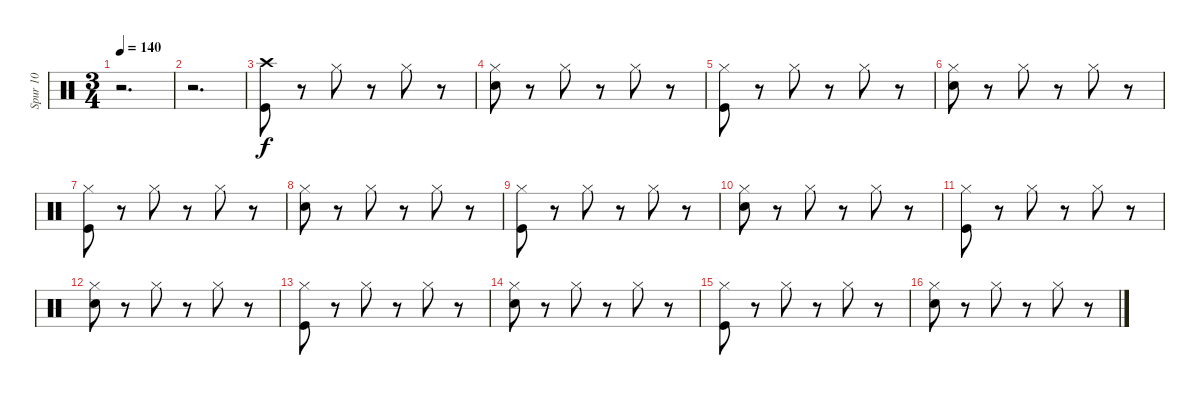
\track ("Spur 10" "Spur 10") {instrument percussion}
\staff {score}
\articulation defaults
\ts (3 4)
\tempo 140
\clef neutral
\ks c
r.2{d dy f} |
r.2{d} |
("Crash high (hit)" "Kick (hit)").8 r.8 "Hi-Hat (closed)".8 r.8 "Hi-Hat (closed)".8 r.8 |
("Snare (hit) 2" "Hi-Hat (closed)").8 r.8 "Hi-Hat (closed)".8 r.8 "Hi-Hat (closed)".8 r.8 |
("Kick (hit)" "Hi-Hat (closed)").8 r.8 "Hi-Hat (closed)".8 r.8 "Hi-Hat (closed)".8 r.8 |
("Hi-Hat (closed)" "Snare (hit) 2").8 r.8 "Hi-Hat (closed)".8 r.8 "Hi-Hat (closed)".8 r.8 |
("Hi-Hat (closed)" "Kick (hit)").8 r.8 "Hi-Hat (closed)".8 r.8 "Hi-Hat (closed)".8 r.8 |
("Snare (hit) 2" "Hi-Hat (closed)").8 r.8 "Hi-Hat (closed)".8 r.8 "Hi-Hat (closed)".8 r.8 |
("Kick (hit)" "Hi-Hat (closed)").8 r.8 "Hi-Hat (closed)".8 r.8 "Hi-Hat (closed)".8 r.8 |
("Snare (hit) 2" "Hi-Hat (closed)").8 r.8 "Hi-Hat (closed)".8 r.8 "Hi-Hat (closed)".8 r.8 |
("Kick (hit)" "Hi-Hat (closed)").8 r.8 "Hi-Hat (closed)".8 r.8 "Hi-Hat (closed)".8 r.8 |
("Snare (hit) 2" "Hi-Hat (closed)").8 r.8 "Hi-Hat (closed)".8 r.8 "Hi-Hat (closed)".8 r.8 |
("Kick (hit)" "Hi-Hat (closed)").8 r.8 "Hi-Hat (closed)".8 r.8 "Hi-Hat (closed)".8 r.8 |
("Snare (hit) 2" "Hi-Hat (closed)").8 r.8 "Hi-Hat (closed)".8 r.8 "Hi-Hat (closed)".8 r.8 |
("Kick (hit)" "Hi-Hat (closed)").8 r.8 "Hi-Hat (closed)".8 r.8 "Hi-Hat (closed)".8 r.8 |
("Snare (hit) 2" "Hi-Hat (closed)").8 r.8 "Hi-Hat (closed)".8 r.8 "Hi-Hat (closed)".8 r.8
